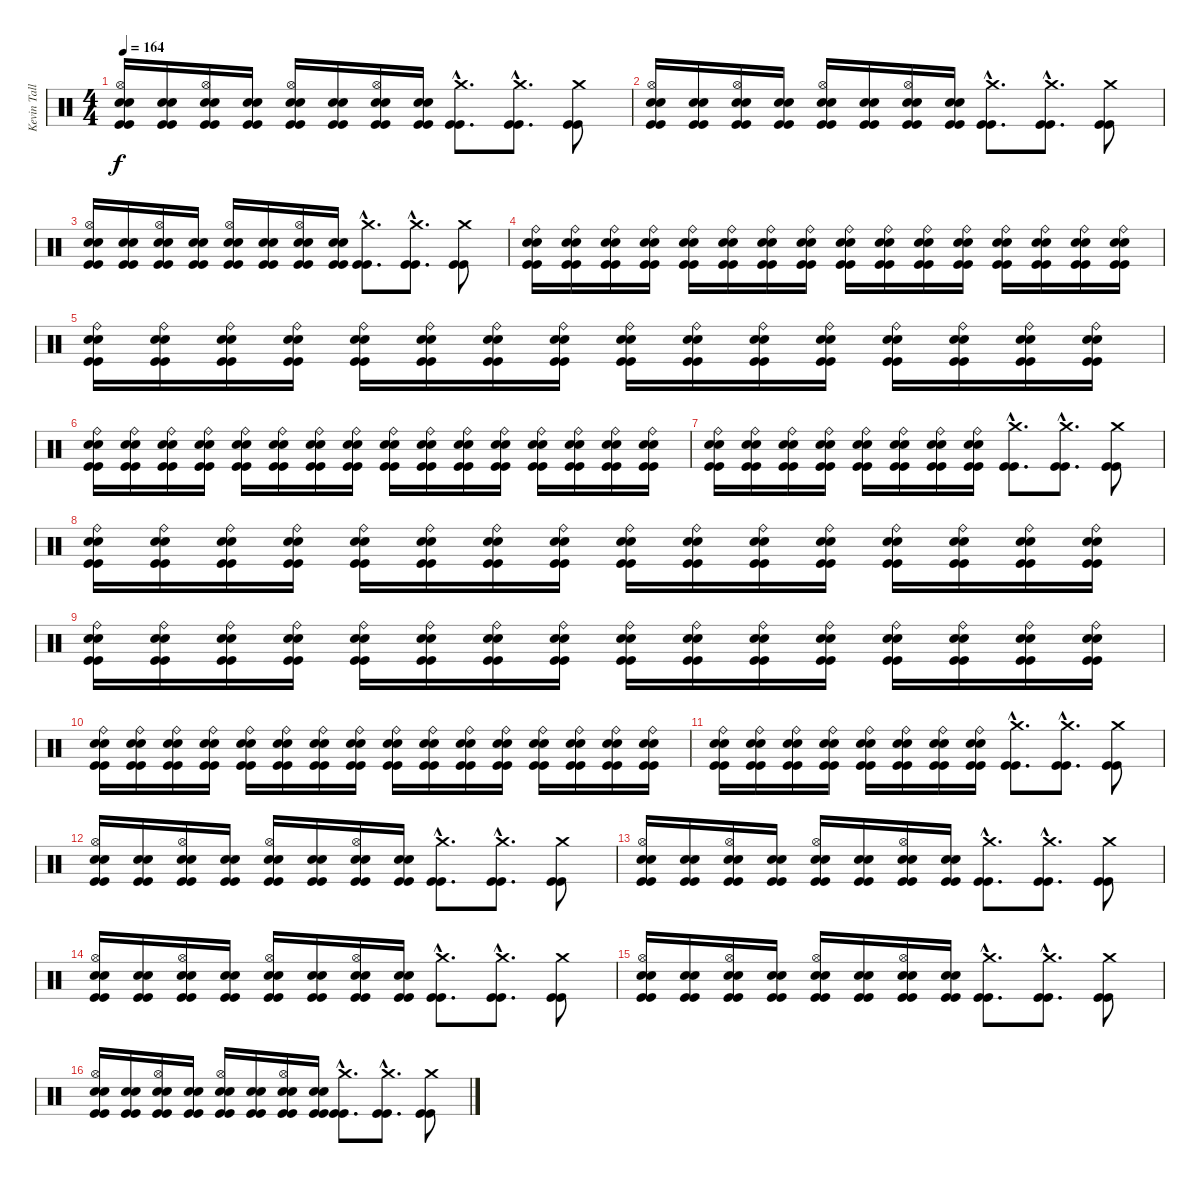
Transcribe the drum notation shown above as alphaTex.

\track ("Kevin Talley" "Kevin Tall") {instrument percussion}
\staff {score}
\articulation defaults
\ts (4 4)
\tempo 164
\clef neutral
\ks c
("Snare (hit) 2" "Snare (hit) 2" "Hi-Hat (open)" "Kick (hit)" "Kick (hit)").16{dy f} ("Snare (hit) 2" "Snare (hit) 2" "Kick (hit)" "Kick (hit)").16 ("Snare (hit) 2" "Snare (hit) 2" "Hi-Hat (open)" "Kick (hit)" "Kick (hit)").16 ("Snare (hit) 2" "Snare (hit) 2" "Kick (hit)" "Kick (hit)").16 ("Snare (hit) 2" "Snare (hit) 2" "Hi-Hat (open)" "Kick (hit)" "Kick (hit)").16 ("Snare (hit) 2" "Snare (hit) 2" "Kick (hit)" "Kick (hit)").16 ("Snare (hit) 2" "Snare (hit) 2" "Hi-Hat (open)" "Kick (hit)" "Kick (hit)").16 ("Snare (hit) 2" "Snare (hit) 2" "Kick (hit)" "Kick (hit)").16 ("Crash medium (hit)"{hac} "Kick (hit)"{hac} "Kick (hit)"{hac}).8{d} ("Crash medium (hit)"{hac} "Kick (hit)"{hac} "Kick (hit)"{hac}).8{d} ("Crash medium (hit)" "Kick (hit)" "Kick (hit)").8 |
("Snare (hit) 2" "Snare (hit) 2" "Hi-Hat (open)" "Kick (hit)" "Kick (hit)").16 ("Snare (hit) 2" "Snare (hit) 2" "Kick (hit)" "Kick (hit)").16 ("Snare (hit) 2" "Snare (hit) 2" "Hi-Hat (open)" "Kick (hit)" "Kick (hit)").16 ("Snare (hit) 2" "Snare (hit) 2" "Kick (hit)" "Kick (hit)").16 ("Snare (hit) 2" "Snare (hit) 2" "Hi-Hat (open)" "Kick (hit)" "Kick (hit)").16 ("Snare (hit) 2" "Snare (hit) 2" "Kick (hit)" "Kick (hit)").16 ("Snare (hit) 2" "Snare (hit) 2" "Hi-Hat (open)" "Kick (hit)" "Kick (hit)").16 ("Snare (hit) 2" "Snare (hit) 2" "Kick (hit)" "Kick (hit)").16 ("Crash medium (hit)"{hac} "Kick (hit)"{hac} "Kick (hit)"{hac}).8{d} ("Crash medium (hit)"{hac} "Kick (hit)"{hac} "Kick (hit)"{hac}).8{d} ("Crash medium (hit)" "Kick (hit)" "Kick (hit)").8 |
("Snare (hit) 2" "Snare (hit) 2" "Hi-Hat (open)" "Kick (hit)" "Kick (hit)").16 ("Snare (hit) 2" "Snare (hit) 2" "Kick (hit)" "Kick (hit)").16 ("Snare (hit) 2" "Snare (hit) 2" "Hi-Hat (open)" "Kick (hit)" "Kick (hit)").16 ("Snare (hit) 2" "Snare (hit) 2" "Kick (hit)" "Kick (hit)").16 ("Snare (hit) 2" "Snare (hit) 2" "Hi-Hat (open)" "Kick (hit)" "Kick (hit)").16 ("Snare (hit) 2" "Snare (hit) 2" "Kick (hit)" "Kick (hit)").16 ("Snare (hit) 2" "Snare (hit) 2" "Hi-Hat (open)" "Kick (hit)" "Kick (hit)").16 ("Snare (hit) 2" "Snare (hit) 2" "Kick (hit)" "Kick (hit)").16 ("Crash medium (hit)"{hac} "Kick (hit)"{hac} "Kick (hit)"{hac}).8{d} ("Crash medium (hit)"{hac} "Kick (hit)"{hac} "Kick (hit)"{hac}).8{d} ("Crash medium (hit)" "Kick (hit)" "Kick (hit)").8 |
("Snare (hit) 2" "Snare (hit) 2" "Ride (bell)" "Kick (hit)" "Kick (hit)").16 ("Snare (hit) 2" "Snare (hit) 2" "Ride (bell)" "Kick (hit)" "Kick (hit)").16 ("Snare (hit) 2" "Snare (hit) 2" "Ride (bell)" "Kick (hit)" "Kick (hit)").16 ("Snare (hit) 2" "Snare (hit) 2" "Ride (bell)" "Kick (hit)" "Kick (hit)").16 ("Snare (hit) 2" "Snare (hit) 2" "Ride (bell)" "Kick (hit)" "Kick (hit)").16 ("Snare (hit) 2" "Snare (hit) 2" "Ride (bell)" "Kick (hit)" "Kick (hit)").16 ("Snare (hit) 2" "Snare (hit) 2" "Ride (bell)" "Kick (hit)" "Kick (hit)").16 ("Snare (hit) 2" "Snare (hit) 2" "Ride (bell)" "Kick (hit)" "Kick (hit)").16 ("Snare (hit) 2" "Snare (hit) 2" "Ride (bell)" "Kick (hit)" "Kick (hit)").16 ("Snare (hit) 2" "Snare (hit) 2" "Ride (bell)" "Kick (hit)" "Kick (hit)").16 ("Snare (hit) 2" "Snare (hit) 2" "Ride (bell)" "Kick (hit)" "Kick (hit)").16 ("Snare (hit) 2" "Snare (hit) 2" "Ride (bell)" "Kick (hit)" "Kick (hit)").16 ("Snare (hit) 2" "Snare (hit) 2" "Ride (bell)" "Kick (hit)" "Kick (hit)").16 ("Snare (hit) 2" "Snare (hit) 2" "Ride (bell)" "Kick (hit)" "Kick (hit)").16 ("Snare (hit) 2" "Snare (hit) 2" "Ride (bell)" "Kick (hit)" "Kick (hit)").16 ("Snare (hit) 2" "Snare (hit) 2" "Ride (bell)" "Kick (hit)" "Kick (hit)").16 |
("Snare (hit) 2" "Snare (hit) 2" "Ride (bell)" "Kick (hit)" "Kick (hit)").16 ("Snare (hit) 2" "Snare (hit) 2" "Ride (bell)" "Kick (hit)" "Kick (hit)").16 ("Snare (hit) 2" "Snare (hit) 2" "Ride (bell)" "Kick (hit)" "Kick (hit)").16 ("Snare (hit) 2" "Snare (hit) 2" "Ride (bell)" "Kick (hit)" "Kick (hit)").16 ("Snare (hit) 2" "Snare (hit) 2" "Ride (bell)" "Kick (hit)" "Kick (hit)").16 ("Snare (hit) 2" "Snare (hit) 2" "Ride (bell)" "Kick (hit)" "Kick (hit)").16 ("Snare (hit) 2" "Snare (hit) 2" "Ride (bell)" "Kick (hit)" "Kick (hit)").16 ("Snare (hit) 2" "Snare (hit) 2" "Ride (bell)" "Kick (hit)" "Kick (hit)").16 ("Snare (hit) 2" "Snare (hit) 2" "Ride (bell)" "Kick (hit)" "Kick (hit)").16 ("Snare (hit) 2" "Snare (hit) 2" "Ride (bell)" "Kick (hit)" "Kick (hit)").16 ("Snare (hit) 2" "Snare (hit) 2" "Ride (bell)" "Kick (hit)" "Kick (hit)").16 ("Snare (hit) 2" "Snare (hit) 2" "Ride (bell)" "Kick (hit)" "Kick (hit)").16 ("Snare (hit) 2" "Snare (hit) 2" "Ride (bell)" "Kick (hit)" "Kick (hit)").16 ("Snare (hit) 2" "Snare (hit) 2" "Ride (bell)" "Kick (hit)" "Kick (hit)").16 ("Snare (hit) 2" "Snare (hit) 2" "Ride (bell)" "Kick (hit)" "Kick (hit)").16 ("Snare (hit) 2" "Snare (hit) 2" "Ride (bell)" "Kick (hit)" "Kick (hit)").16 |
("Snare (hit) 2" "Snare (hit) 2" "Ride (bell)" "Kick (hit)" "Kick (hit)").16 ("Snare (hit) 2" "Snare (hit) 2" "Ride (bell)" "Kick (hit)" "Kick (hit)").16 ("Snare (hit) 2" "Snare (hit) 2" "Ride (bell)" "Kick (hit)" "Kick (hit)").16 ("Snare (hit) 2" "Snare (hit) 2" "Ride (bell)" "Kick (hit)" "Kick (hit)").16 ("Snare (hit) 2" "Snare (hit) 2" "Ride (bell)" "Kick (hit)" "Kick (hit)").16 ("Snare (hit) 2" "Snare (hit) 2" "Ride (bell)" "Kick (hit)" "Kick (hit)").16 ("Snare (hit) 2" "Snare (hit) 2" "Ride (bell)" "Kick (hit)" "Kick (hit)").16 ("Snare (hit) 2" "Snare (hit) 2" "Ride (bell)" "Kick (hit)" "Kick (hit)").16 ("Snare (hit) 2" "Snare (hit) 2" "Ride (bell)" "Kick (hit)" "Kick (hit)").16 ("Snare (hit) 2" "Snare (hit) 2" "Ride (bell)" "Kick (hit)" "Kick (hit)").16 ("Snare (hit) 2" "Snare (hit) 2" "Ride (bell)" "Kick (hit)" "Kick (hit)").16 ("Snare (hit) 2" "Snare (hit) 2" "Ride (bell)" "Kick (hit)" "Kick (hit)").16 ("Snare (hit) 2" "Snare (hit) 2" "Ride (bell)" "Kick (hit)" "Kick (hit)").16 ("Snare (hit) 2" "Snare (hit) 2" "Ride (bell)" "Kick (hit)" "Kick (hit)").16 ("Snare (hit) 2" "Snare (hit) 2" "Ride (bell)" "Kick (hit)" "Kick (hit)").16 ("Snare (hit) 2" "Snare (hit) 2" "Ride (bell)" "Kick (hit)" "Kick (hit)").16 |
("Snare (hit) 2" "Snare (hit) 2" "Ride (bell)" "Kick (hit)" "Kick (hit)").16 ("Snare (hit) 2" "Snare (hit) 2" "Ride (bell)" "Kick (hit)" "Kick (hit)").16 ("Snare (hit) 2" "Snare (hit) 2" "Ride (bell)" "Kick (hit)" "Kick (hit)").16 ("Snare (hit) 2" "Snare (hit) 2" "Ride (bell)" "Kick (hit)" "Kick (hit)").16 ("Snare (hit) 2" "Snare (hit) 2" "Ride (bell)" "Kick (hit)" "Kick (hit)").16 ("Snare (hit) 2" "Snare (hit) 2" "Ride (bell)" "Kick (hit)" "Kick (hit)").16 ("Snare (hit) 2" "Snare (hit) 2" "Ride (bell)" "Kick (hit)" "Kick (hit)").16 ("Snare (hit) 2" "Snare (hit) 2" "Ride (bell)" "Kick (hit)" "Kick (hit)").16 ("Crash medium (hit)"{hac} "Kick (hit)"{hac} "Kick (hit)"{hac}).8{d} ("Crash medium (hit)"{hac} "Kick (hit)"{hac} "Kick (hit)"{hac}).8{d} ("Crash medium (hit)" "Kick (hit)" "Kick (hit)").8 |
("Snare (hit) 2" "Snare (hit) 2" "Ride (bell)" "Kick (hit)" "Kick (hit)").16 ("Snare (hit) 2" "Snare (hit) 2" "Ride (bell)" "Kick (hit)" "Kick (hit)").16 ("Snare (hit) 2" "Snare (hit) 2" "Ride (bell)" "Kick (hit)" "Kick (hit)").16 ("Snare (hit) 2" "Snare (hit) 2" "Ride (bell)" "Kick (hit)" "Kick (hit)").16 ("Snare (hit) 2" "Snare (hit) 2" "Ride (bell)" "Kick (hit)" "Kick (hit)").16 ("Snare (hit) 2" "Snare (hit) 2" "Ride (bell)" "Kick (hit)" "Kick (hit)").16 ("Snare (hit) 2" "Snare (hit) 2" "Ride (bell)" "Kick (hit)" "Kick (hit)").16 ("Snare (hit) 2" "Snare (hit) 2" "Ride (bell)" "Kick (hit)" "Kick (hit)").16 ("Snare (hit) 2" "Snare (hit) 2" "Ride (bell)" "Kick (hit)" "Kick (hit)").16 ("Snare (hit) 2" "Snare (hit) 2" "Ride (bell)" "Kick (hit)" "Kick (hit)").16 ("Snare (hit) 2" "Snare (hit) 2" "Ride (bell)" "Kick (hit)" "Kick (hit)").16 ("Snare (hit) 2" "Snare (hit) 2" "Ride (bell)" "Kick (hit)" "Kick (hit)").16 ("Snare (hit) 2" "Snare (hit) 2" "Ride (bell)" "Kick (hit)" "Kick (hit)").16 ("Snare (hit) 2" "Snare (hit) 2" "Ride (bell)" "Kick (hit)" "Kick (hit)").16 ("Snare (hit) 2" "Snare (hit) 2" "Ride (bell)" "Kick (hit)" "Kick (hit)").16 ("Snare (hit) 2" "Snare (hit) 2" "Ride (bell)" "Kick (hit)" "Kick (hit)").16 |
("Snare (hit) 2" "Snare (hit) 2" "Ride (bell)" "Kick (hit)" "Kick (hit)").16 ("Snare (hit) 2" "Snare (hit) 2" "Ride (bell)" "Kick (hit)" "Kick (hit)").16 ("Snare (hit) 2" "Snare (hit) 2" "Ride (bell)" "Kick (hit)" "Kick (hit)").16 ("Snare (hit) 2" "Snare (hit) 2" "Ride (bell)" "Kick (hit)" "Kick (hit)").16 ("Snare (hit) 2" "Snare (hit) 2" "Ride (bell)" "Kick (hit)" "Kick (hit)").16 ("Snare (hit) 2" "Snare (hit) 2" "Ride (bell)" "Kick (hit)" "Kick (hit)").16 ("Snare (hit) 2" "Snare (hit) 2" "Ride (bell)" "Kick (hit)" "Kick (hit)").16 ("Snare (hit) 2" "Snare (hit) 2" "Ride (bell)" "Kick (hit)" "Kick (hit)").16 ("Snare (hit) 2" "Snare (hit) 2" "Ride (bell)" "Kick (hit)" "Kick (hit)").16 ("Snare (hit) 2" "Snare (hit) 2" "Ride (bell)" "Kick (hit)" "Kick (hit)").16 ("Snare (hit) 2" "Snare (hit) 2" "Ride (bell)" "Kick (hit)" "Kick (hit)").16 ("Snare (hit) 2" "Snare (hit) 2" "Ride (bell)" "Kick (hit)" "Kick (hit)").16 ("Snare (hit) 2" "Snare (hit) 2" "Ride (bell)" "Kick (hit)" "Kick (hit)").16 ("Snare (hit) 2" "Snare (hit) 2" "Ride (bell)" "Kick (hit)" "Kick (hit)").16 ("Snare (hit) 2" "Snare (hit) 2" "Ride (bell)" "Kick (hit)" "Kick (hit)").16 ("Snare (hit) 2" "Snare (hit) 2" "Ride (bell)" "Kick (hit)" "Kick (hit)").16 |
("Snare (hit) 2" "Snare (hit) 2" "Ride (bell)" "Kick (hit)" "Kick (hit)").16 ("Snare (hit) 2" "Snare (hit) 2" "Ride (bell)" "Kick (hit)" "Kick (hit)").16 ("Snare (hit) 2" "Snare (hit) 2" "Ride (bell)" "Kick (hit)" "Kick (hit)").16 ("Snare (hit) 2" "Snare (hit) 2" "Ride (bell)" "Kick (hit)" "Kick (hit)").16 ("Snare (hit) 2" "Snare (hit) 2" "Ride (bell)" "Kick (hit)" "Kick (hit)").16 ("Snare (hit) 2" "Snare (hit) 2" "Ride (bell)" "Kick (hit)" "Kick (hit)").16 ("Snare (hit) 2" "Snare (hit) 2" "Ride (bell)" "Kick (hit)" "Kick (hit)").16 ("Snare (hit) 2" "Snare (hit) 2" "Ride (bell)" "Kick (hit)" "Kick (hit)").16 ("Snare (hit) 2" "Snare (hit) 2" "Ride (bell)" "Kick (hit)" "Kick (hit)").16 ("Snare (hit) 2" "Snare (hit) 2" "Ride (bell)" "Kick (hit)" "Kick (hit)").16 ("Snare (hit) 2" "Snare (hit) 2" "Ride (bell)" "Kick (hit)" "Kick (hit)").16 ("Snare (hit) 2" "Snare (hit) 2" "Ride (bell)" "Kick (hit)" "Kick (hit)").16 ("Snare (hit) 2" "Snare (hit) 2" "Ride (bell)" "Kick (hit)" "Kick (hit)").16 ("Snare (hit) 2" "Snare (hit) 2" "Ride (bell)" "Kick (hit)" "Kick (hit)").16 ("Snare (hit) 2" "Snare (hit) 2" "Ride (bell)" "Kick (hit)" "Kick (hit)").16 ("Snare (hit) 2" "Snare (hit) 2" "Ride (bell)" "Kick (hit)" "Kick (hit)").16 |
("Snare (hit) 2" "Snare (hit) 2" "Ride (bell)" "Kick (hit)" "Kick (hit)").16 ("Snare (hit) 2" "Snare (hit) 2" "Ride (bell)" "Kick (hit)" "Kick (hit)").16 ("Snare (hit) 2" "Snare (hit) 2" "Ride (bell)" "Kick (hit)" "Kick (hit)").16 ("Snare (hit) 2" "Snare (hit) 2" "Ride (bell)" "Kick (hit)" "Kick (hit)").16 ("Snare (hit) 2" "Snare (hit) 2" "Ride (bell)" "Kick (hit)" "Kick (hit)").16 ("Snare (hit) 2" "Snare (hit) 2" "Ride (bell)" "Kick (hit)" "Kick (hit)").16 ("Snare (hit) 2" "Snare (hit) 2" "Ride (bell)" "Kick (hit)" "Kick (hit)").16 ("Snare (hit) 2" "Snare (hit) 2" "Ride (bell)" "Kick (hit)" "Kick (hit)").16 ("Crash medium (hit)"{hac} "Kick (hit)"{hac} "Kick (hit)"{hac}).8{d} ("Crash medium (hit)"{hac} "Kick (hit)"{hac} "Kick (hit)"{hac}).8{d} ("Crash medium (hit)" "Kick (hit)" "Kick (hit)").8 |
("Snare (hit) 2" "Snare (hit) 2" "Hi-Hat (open)" "Kick (hit)" "Kick (hit)").16 ("Snare (hit) 2" "Snare (hit) 2" "Kick (hit)" "Kick (hit)").16 ("Snare (hit) 2" "Snare (hit) 2" "Hi-Hat (open)" "Kick (hit)" "Kick (hit)").16 ("Snare (hit) 2" "Snare (hit) 2" "Kick (hit)" "Kick (hit)").16 ("Snare (hit) 2" "Snare (hit) 2" "Hi-Hat (open)" "Kick (hit)" "Kick (hit)").16 ("Snare (hit) 2" "Snare (hit) 2" "Kick (hit)" "Kick (hit)").16 ("Snare (hit) 2" "Snare (hit) 2" "Hi-Hat (open)" "Kick (hit)" "Kick (hit)").16 ("Snare (hit) 2" "Snare (hit) 2" "Kick (hit)" "Kick (hit)").16 ("Crash medium (hit)"{hac} "Kick (hit)"{hac} "Kick (hit)"{hac}).8{d} ("Crash medium (hit)"{hac} "Kick (hit)"{hac} "Kick (hit)"{hac}).8{d} ("Crash medium (hit)" "Kick (hit)" "Kick (hit)").8 |
("Snare (hit) 2" "Snare (hit) 2" "Hi-Hat (open)" "Kick (hit)" "Kick (hit)").16 ("Snare (hit) 2" "Snare (hit) 2" "Kick (hit)" "Kick (hit)").16 ("Snare (hit) 2" "Snare (hit) 2" "Hi-Hat (open)" "Kick (hit)" "Kick (hit)").16 ("Snare (hit) 2" "Snare (hit) 2" "Kick (hit)" "Kick (hit)").16 ("Snare (hit) 2" "Snare (hit) 2" "Hi-Hat (open)" "Kick (hit)" "Kick (hit)").16 ("Snare (hit) 2" "Snare (hit) 2" "Kick (hit)" "Kick (hit)").16 ("Snare (hit) 2" "Snare (hit) 2" "Hi-Hat (open)" "Kick (hit)" "Kick (hit)").16 ("Snare (hit) 2" "Snare (hit) 2" "Kick (hit)" "Kick (hit)").16 ("Crash medium (hit)"{hac} "Kick (hit)"{hac} "Kick (hit)"{hac}).8{d} ("Crash medium (hit)"{hac} "Kick (hit)"{hac} "Kick (hit)"{hac}).8{d} ("Crash medium (hit)" "Kick (hit)" "Kick (hit)").8 |
("Snare (hit) 2" "Snare (hit) 2" "Hi-Hat (open)" "Kick (hit)" "Kick (hit)").16 ("Snare (hit) 2" "Snare (hit) 2" "Kick (hit)" "Kick (hit)").16 ("Snare (hit) 2" "Snare (hit) 2" "Hi-Hat (open)" "Kick (hit)" "Kick (hit)").16 ("Snare (hit) 2" "Snare (hit) 2" "Kick (hit)" "Kick (hit)").16 ("Snare (hit) 2" "Snare (hit) 2" "Hi-Hat (open)" "Kick (hit)" "Kick (hit)").16 ("Snare (hit) 2" "Snare (hit) 2" "Kick (hit)" "Kick (hit)").16 ("Snare (hit) 2" "Snare (hit) 2" "Hi-Hat (open)" "Kick (hit)" "Kick (hit)").16 ("Snare (hit) 2" "Snare (hit) 2" "Kick (hit)" "Kick (hit)").16 ("Crash medium (hit)"{hac} "Kick (hit)"{hac} "Kick (hit)"{hac}).8{d} ("Crash medium (hit)"{hac} "Kick (hit)"{hac} "Kick (hit)"{hac}).8{d} ("Crash medium (hit)" "Kick (hit)" "Kick (hit)").8 |
("Snare (hit) 2" "Snare (hit) 2" "Hi-Hat (open)" "Kick (hit)" "Kick (hit)").16 ("Snare (hit) 2" "Snare (hit) 2" "Kick (hit)" "Kick (hit)").16 ("Snare (hit) 2" "Snare (hit) 2" "Hi-Hat (open)" "Kick (hit)" "Kick (hit)").16 ("Snare (hit) 2" "Snare (hit) 2" "Kick (hit)" "Kick (hit)").16 ("Snare (hit) 2" "Snare (hit) 2" "Hi-Hat (open)" "Kick (hit)" "Kick (hit)").16 ("Snare (hit) 2" "Snare (hit) 2" "Kick (hit)" "Kick (hit)").16 ("Snare (hit) 2" "Snare (hit) 2" "Hi-Hat (open)" "Kick (hit)" "Kick (hit)").16 ("Snare (hit) 2" "Snare (hit) 2" "Kick (hit)" "Kick (hit)").16 ("Crash medium (hit)"{hac} "Kick (hit)"{hac} "Kick (hit)"{hac}).8{d} ("Crash medium (hit)"{hac} "Kick (hit)"{hac} "Kick (hit)"{hac}).8{d} ("Crash medium (hit)" "Kick (hit)" "Kick (hit)").8 |
("Snare (hit) 2" "Snare (hit) 2" "Hi-Hat (open)" "Kick (hit)" "Kick (hit)").16 ("Snare (hit) 2" "Snare (hit) 2" "Kick (hit)" "Kick (hit)").16 ("Snare (hit) 2" "Snare (hit) 2" "Hi-Hat (open)" "Kick (hit)" "Kick (hit)").16 ("Snare (hit) 2" "Snare (hit) 2" "Kick (hit)" "Kick (hit)").16 ("Snare (hit) 2" "Snare (hit) 2" "Hi-Hat (open)" "Kick (hit)" "Kick (hit)").16 ("Snare (hit) 2" "Snare (hit) 2" "Kick (hit)" "Kick (hit)").16 ("Snare (hit) 2" "Snare (hit) 2" "Hi-Hat (open)" "Kick (hit)" "Kick (hit)").16 ("Snare (hit) 2" "Snare (hit) 2" "Kick (hit)" "Kick (hit)").16 ("Crash medium (hit)"{hac} "Kick (hit)"{hac} "Kick (hit)"{hac}).8{d} ("Crash medium (hit)"{hac} "Kick (hit)"{hac} "Kick (hit)"{hac}).8{d} ("Crash medium (hit)" "Kick (hit)" "Kick (hit)").8
